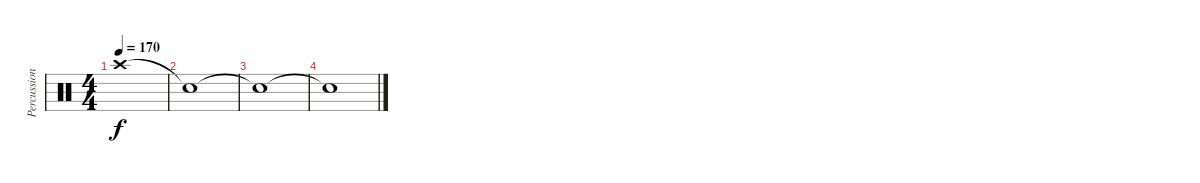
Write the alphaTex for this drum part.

\track ("Percussions" "Percussion") {instrument percussion}
\staff {score}
\articulation defaults
\ts (4 4)
\tempo 170
\clef neutral
\ks c "Crash high (hit)".1{dy f}
|
"Snare (hit)"{t}.1 |
"Snare (hit)"{t}.1 |
"Snare (hit)"{t}.1
